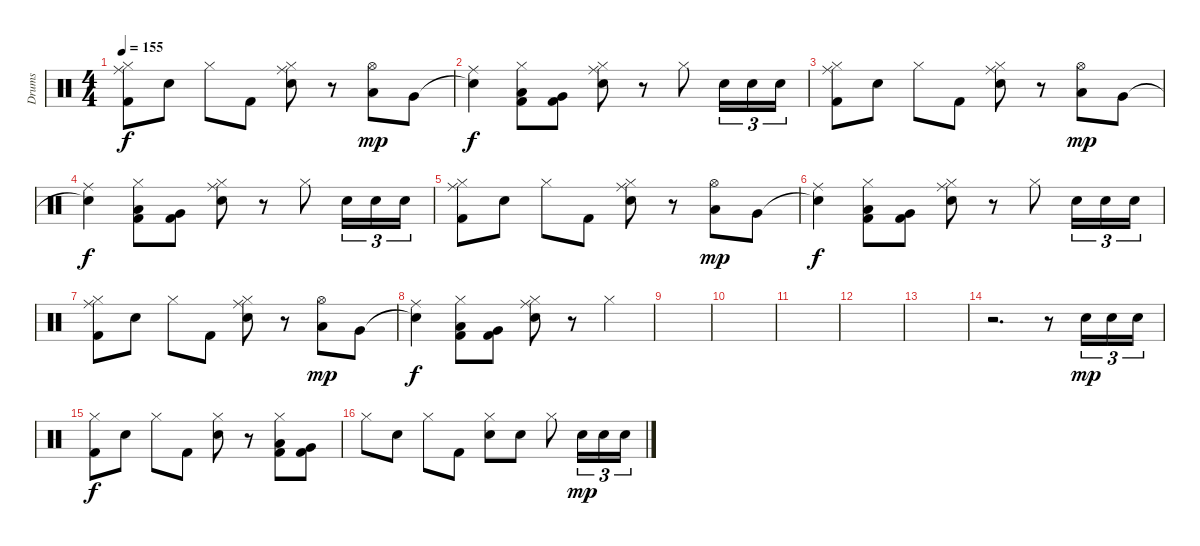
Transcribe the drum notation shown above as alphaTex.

\track ("Drums" "Drums") {instrument percussion}
\staff {score}
\articulation defaults
\ts (4 4)
\tempo 155
\clef neutral
\ks c
("Hi-Hat (closed)" "Ride (middle)" "Kick (hit) 2").8{dy f} "Electric Snare (hit)".8 "Hi-Hat (closed)".8 "Kick (hit) 2".8 ("Hi-Hat (closed)" "Ride (middle)" "Electric Snare (hit)").8 r.8 ("Hi-Hat (open)" "Low Tom (hit)").8{dy mp} "Very Low Tom (hit)".8 |
("Snare (hit)"{t} "Ride (middle)").4{dy f} ("Hi-Hat (closed)" "Low Tom (hit)" "Kick (hit) 2").8 ("Very Low Tom (hit)" "Kick (hit) 2").8 ("Hi-Hat (closed)" "Ride (middle)" "Electric Snare (hit)").8 r.8 "Hi-Hat (closed)".8 "Electric Snare (hit)".16{tu (3 2)} "Electric Snare (hit)".16{tu (3 2)} "Electric Snare (hit)".16{tu (3 2)} |
("Hi-Hat (closed)" "Ride (middle)" "Kick (hit) 2").8 "Electric Snare (hit)".8 "Hi-Hat (closed)".8 "Kick (hit) 2".8 ("Hi-Hat (closed)" "Ride (middle)" "Electric Snare (hit)").8 r.8 ("Hi-Hat (open)" "Low Tom (hit)").8{dy mp} "Very Low Tom (hit)".8 |
("Snare (hit)"{t} "Ride (middle)").4{dy f} ("Hi-Hat (closed)" "Low Tom (hit)" "Kick (hit) 2").8 ("Very Low Tom (hit)" "Kick (hit) 2").8 ("Hi-Hat (closed)" "Ride (middle)" "Electric Snare (hit)").8 r.8 "Hi-Hat (closed)".8 "Electric Snare (hit)".16{tu (3 2)} "Electric Snare (hit)".16{tu (3 2)} "Electric Snare (hit)".16{tu (3 2)} |
("Hi-Hat (closed)" "Ride (middle)" "Kick (hit) 2").8 "Electric Snare (hit)".8 "Hi-Hat (closed)".8 "Kick (hit) 2".8 ("Hi-Hat (closed)" "Ride (middle)" "Electric Snare (hit)").8 r.8 ("Hi-Hat (open)" "Low Tom (hit)").8{dy mp} "Very Low Tom (hit)".8 |
("Snare (hit)"{t} "Ride (middle)").4{dy f} ("Hi-Hat (closed)" "Low Tom (hit)" "Kick (hit) 2").8 ("Very Low Tom (hit)" "Kick (hit) 2").8 ("Hi-Hat (closed)" "Ride (middle)" "Electric Snare (hit)").8 r.8 "Hi-Hat (closed)".8 "Electric Snare (hit)".16{tu (3 2)} "Electric Snare (hit)".16{tu (3 2)} "Electric Snare (hit)".16{tu (3 2)} |
("Hi-Hat (closed)" "Ride (middle)" "Kick (hit) 2").8 "Electric Snare (hit)".8 "Hi-Hat (closed)".8 "Kick (hit) 2".8 ("Hi-Hat (closed)" "Ride (middle)" "Electric Snare (hit)").8 r.8 ("Hi-Hat (open)" "Low Tom (hit)").8{dy mp} "Very Low Tom (hit)".8 |
("Snare (hit)"{t} "Ride (middle)").4{dy f} ("Hi-Hat (closed)" "Low Tom (hit)" "Kick (hit) 2").8 ("Very Low Tom (hit)" "Kick (hit) 2").8 ("Hi-Hat (closed)" "Ride (middle)" "Electric Snare (hit)").8 r.8 "Hi-Hat (closed)".4 |
|
|
|
|
|
r.2{d} r.8 "Electric Snare (hit)".16{tu (3 2) dy mp} "Electric Snare (hit)".16{tu (3 2)} "Electric Snare (hit)".16{tu (3 2)} |
("Hi-Hat (closed)" "Kick (hit) 2").8{dy f} "Electric Snare (hit)".8 "Hi-Hat (closed)".8 "Kick (hit) 2".8 ("Hi-Hat (closed)" "Electric Snare (hit)").8 r.8 ("Hi-Hat (closed)" "Low Tom (hit)" "Kick (hit) 2").8 ("Very Low Tom (hit)" "Kick (hit) 2").8 |
"Hi-Hat (closed)".8 "Electric Snare (hit)".8 "Hi-Hat (closed)".8 "Kick (hit) 2".8 ("Hi-Hat (closed)" "Electric Snare (hit)").8 "Electric Snare (hit)".8 "Hi-Hat (closed)".8 "Electric Snare (hit)".16{tu (3 2) dy mp} "Electric Snare (hit)".16{tu (3 2)} "Electric Snare (hit)".16{tu (3 2)}
